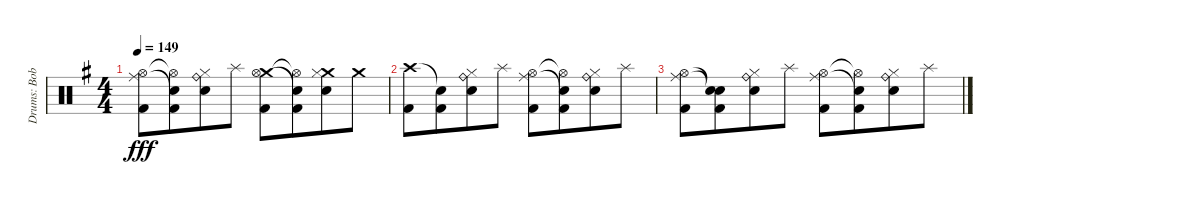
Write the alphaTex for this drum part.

\track ("Drums: Bobby" "Drums: Bob") {instrument percussion}
\staff {score}
\articulation defaults
\ts (4 4)
\tempo 149
\clef neutral
\ks g
("Ride (middle)" "Hi-Hat (open)" "Kick (hit) 2").8{dy fff} ("Snare (hit)"{t} "Hi-Hat (open)"{t} "Kick (hit) 2").8{beam merge} ("Ride (bell)" "Hi-Hat (closed)" "Snare (hit) 2").8 "Splash (hit)".8 ("Crash medium (hit)" "Hi-Hat (open)" "Kick (hit) 2").8 ("Snare (hit)"{t} "Hi-Hat (open)"{t} "Kick (hit) 2").8{beam merge} ("Crash medium (hit)" "Hi-Hat (closed)" "Snare (hit) 2").8 "Crash medium (hit)".8 |
("Crash high (hit)" "Kick (hit) 2").8 ("Snare (hit)"{t} "Kick (hit) 2").8{beam merge} ("Ride (bell)" "Hi-Hat (closed)" "Snare (hit) 2").8 "Splash (hit)".8 ("Ride (middle)" "Hi-Hat (open)" "Kick (hit) 2").8 ("Snare (hit)"{t} "Hi-Hat (open)"{t} "Kick (hit) 2").8{beam merge} ("Ride (bell)" "Hi-Hat (closed)" "Snare (hit) 2").8 "Splash (hit)".8 |
("Ride (middle)" "Hi-Hat (open)" "Kick (hit) 2").8 ("Snare (hit)"{t} "Snare (hit)"{t} "Kick (hit) 2").8{beam merge} ("Ride (bell)" "Hi-Hat (closed)" "Snare (hit) 2").8 "Splash (hit)".8 ("Ride (middle)" "Hi-Hat (open)" "Kick (hit) 2").8 ("Snare (hit)"{t} "Hi-Hat (open)"{t} "Kick (hit) 2").8{beam merge} ("Ride (bell)" "Hi-Hat (closed)" "Snare (hit) 2").8 "Splash (hit)".8
